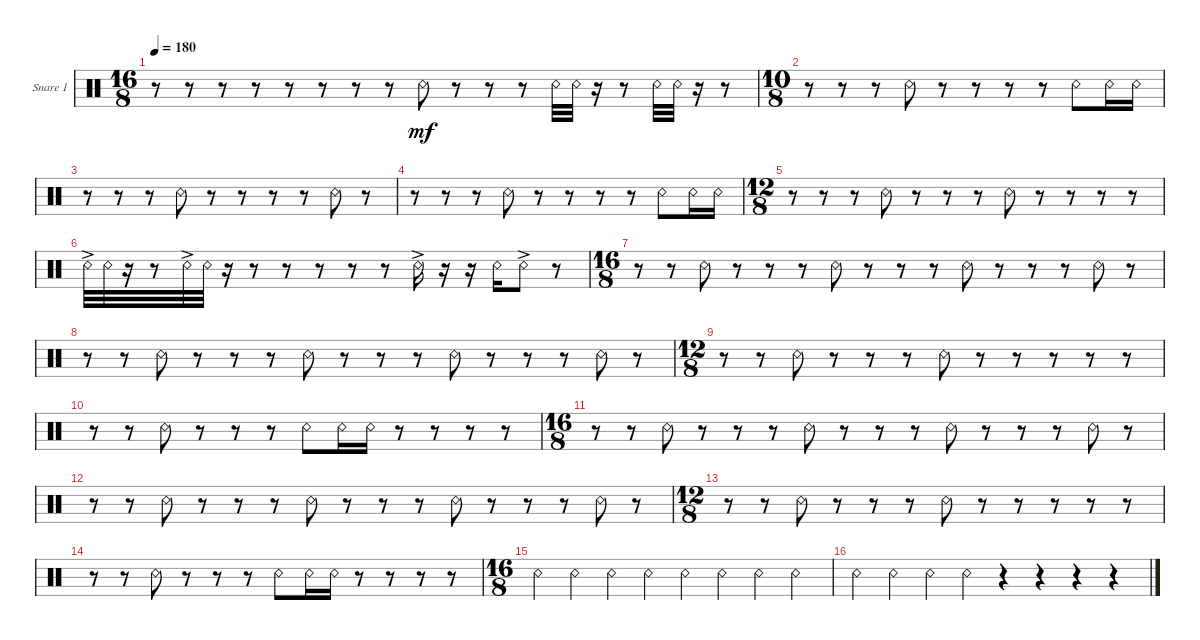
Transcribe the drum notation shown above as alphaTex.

\defaultSystemsLayout 4
\bracketExtendMode groupsimilarinstruments
\firstSystemTrackNameOrientation horizontal
\otherSystemsTrackNameOrientation horizontal
\track ("Snare 1" "Snare 1") {instrument percussion}
\staff {score}
\articulation defaults
\ts (16 8)
\tempo 180
\clef neutral
\ks c
r.8{dy mf} r.8 r.8 r.8 r.8 r.8 r.8 r.8 "Snare (rim shot)".8 r.8 r.8 r.8 "Snare (rim shot)".32 "Snare (rim shot)".32 r.16 r.8 "Snare (rim shot)".32 "Snare (rim shot)".32 r.16 r.8 |
\ts (10 8)
r.8 r.8 r.8 "Snare (rim shot)".8 r.8 r.8 r.8 r.8 "Snare (rim shot)".8 "Snare (rim shot)".16 "Snare (rim shot)".16 |
r.8 r.8 r.8 "Snare (rim shot)".8 r.8 r.8 r.8 r.8 "Snare (rim shot)".8 r.8 |
r.8 r.8 r.8 "Snare (rim shot)".8 r.8 r.8 r.8 r.8 "Snare (rim shot)".8 "Snare (rim shot)".16 "Snare (rim shot)".16 |
\ts (12 8)
r.8 r.8 r.8 "Snare (rim shot)".8 r.8 r.8 r.8 "Snare (rim shot)".8 r.8 r.8 r.8 r.8 |
"Snare (rim shot)"{ac}.32 "Snare (rim shot)".32 r.16 r.8 "Snare (rim shot)"{ac}.32 "Snare (rim shot)".32 r.16 r.8 r.8 r.8 r.8 r.8 "Snare (rim shot)"{ac}.16 r.16 r.16 "Snare (rim shot)".16 "Snare (rim shot)"{ac}.8 r.8 |
\ts (16 8)
r.8 r.8 "Snare (rim shot)".8 r.8 r.8 r.8 "Snare (rim shot)".8 r.8 r.8 r.8 "Snare (rim shot)".8 r.8 r.8 r.8 "Snare (rim shot)".8 r.8 |
r.8 r.8 "Snare (rim shot)".8 r.8 r.8 r.8 "Snare (rim shot)".8 r.8 r.8 r.8 "Snare (rim shot)".8 r.8 r.8 r.8 "Snare (rim shot)".8 r.8 |
\ts (12 8)
r.8 r.8 "Snare (rim shot)".8 r.8 r.8 r.8 "Snare (rim shot)".8 r.8 r.8 r.8 r.8 r.8 |
r.8 r.8 "Snare (rim shot)".8 r.8 r.8 r.8 "Snare (rim shot)".8 "Snare (rim shot)".16 "Snare (rim shot)".16 r.8 r.8 r.8 r.8 |
\ts (16 8)
r.8 r.8 "Snare (rim shot)".8 r.8 r.8 r.8 "Snare (rim shot)".8 r.8 r.8 r.8 "Snare (rim shot)".8 r.8 r.8 r.8 "Snare (rim shot)".8 r.8 |
r.8 r.8 "Snare (rim shot)".8 r.8 r.8 r.8 "Snare (rim shot)".8 r.8 r.8 r.8 "Snare (rim shot)".8 r.8 r.8 r.8 "Snare (rim shot)".8 r.8 |
\ts (12 8)
r.8 r.8 "Snare (rim shot)".8 r.8 r.8 r.8 "Snare (rim shot)".8 r.8 r.8 r.8 r.8 r.8 |
r.8 r.8 "Snare (rim shot)".8 r.8 r.8 r.8 "Snare (rim shot)".8 "Snare (rim shot)".16 "Snare (rim shot)".16 r.8 r.8 r.8 r.8 |
\ts (16 8)
"Snare (rim shot)".4 "Snare (rim shot)".4 "Snare (rim shot)".4 "Snare (rim shot)".4 "Snare (rim shot)".4 "Snare (rim shot)".4 "Snare (rim shot)".4 "Snare (rim shot)".4 |
"Snare (rim shot)".4 "Snare (rim shot)".4 "Snare (rim shot)".4 "Snare (rim shot)".4 r.4 r.4 r.4 r.4
